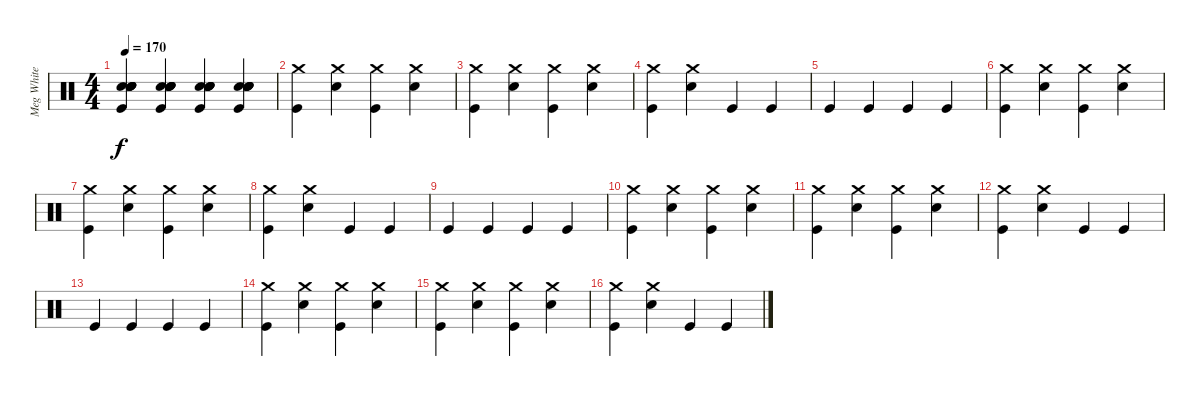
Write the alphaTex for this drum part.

\track ("Meg White" "Meg White") {instrument percussion}
\staff {score}
\articulation defaults
\ts (4 4)
\tempo 170
\clef neutral
\ks c
("Kick (hit)" "Snare (hit)"{x} "Snare (hit)"{x} "Snare (hit)"{x} "Snare (hit)"{x} "Snare (hit)"{x}).4{dy f} ("Kick (hit)" "Snare (hit)"{x} "Snare (hit)"{x} "Snare (hit)"{x} "Snare (hit)"{x} "Snare (hit)"{x}).4 ("Kick (hit)" "Snare (hit)"{x} "Snare (hit)"{x} "Snare (hit)"{x} "Snare (hit)"{x} "Snare (hit)"{x}).4 ("Kick (hit)" "Snare (hit)"{x} "Snare (hit)"{x} "Snare (hit)"{x} "Snare (hit)"{x} "Snare (hit)"{x}).4 |
("Kick (hit)" "Crash medium (hit)").4 ("Snare (hit) 2" "Crash medium (hit)").4 ("Kick (hit)" "Crash medium (hit)").4 ("Snare (hit) 2" "Crash medium (hit)").4 |
("Kick (hit)" "Crash medium (hit)").4 ("Snare (hit) 2" "Crash medium (hit)").4 ("Kick (hit)" "Crash medium (hit)").4 ("Snare (hit) 2" "Crash medium (hit)").4 |
("Kick (hit)" "Crash medium (hit)").4 ("Snare (hit) 2" "Crash medium (hit)").4 "Kick (hit)".4 "Kick (hit)".4 |
"Kick (hit)".4 "Kick (hit)".4 "Kick (hit)".4 "Kick (hit)".4 |
("Kick (hit)" "Crash medium (hit)").4 ("Snare (hit) 2" "Crash medium (hit)").4 ("Kick (hit)" "Crash medium (hit)").4 ("Snare (hit) 2" "Crash medium (hit)").4 |
("Kick (hit)" "Crash medium (hit)").4 ("Snare (hit) 2" "Crash medium (hit)").4 ("Kick (hit)" "Crash medium (hit)").4 ("Snare (hit) 2" "Crash medium (hit)").4 |
("Kick (hit)" "Crash medium (hit)").4 ("Snare (hit) 2" "Crash medium (hit)").4 "Kick (hit)".4 "Kick (hit)".4 |
"Kick (hit)".4 "Kick (hit)".4 "Kick (hit)".4 "Kick (hit)".4 |
("Kick (hit)" "Crash medium (hit)").4 ("Snare (hit) 2" "Crash medium (hit)").4 ("Kick (hit)" "Crash medium (hit)").4 ("Snare (hit) 2" "Crash medium (hit)").4 |
("Kick (hit)" "Crash medium (hit)").4 ("Snare (hit) 2" "Crash medium (hit)").4 ("Kick (hit)" "Crash medium (hit)").4 ("Snare (hit) 2" "Crash medium (hit)").4 |
("Kick (hit)" "Crash medium (hit)").4 ("Snare (hit) 2" "Crash medium (hit)").4 "Kick (hit)".4 "Kick (hit)".4 |
"Kick (hit)".4 "Kick (hit)".4 "Kick (hit)".4 "Kick (hit)".4 |
("Kick (hit)" "Crash medium (hit)").4 ("Snare (hit) 2" "Crash medium (hit)").4 ("Kick (hit)" "Crash medium (hit)").4 ("Snare (hit) 2" "Crash medium (hit)").4 |
("Kick (hit)" "Crash medium (hit)").4 ("Snare (hit) 2" "Crash medium (hit)").4 ("Kick (hit)" "Crash medium (hit)").4 ("Snare (hit) 2" "Crash medium (hit)").4 |
("Kick (hit)" "Crash medium (hit)").4 ("Snare (hit) 2" "Crash medium (hit)").4 "Kick (hit)".4 "Kick (hit)".4
